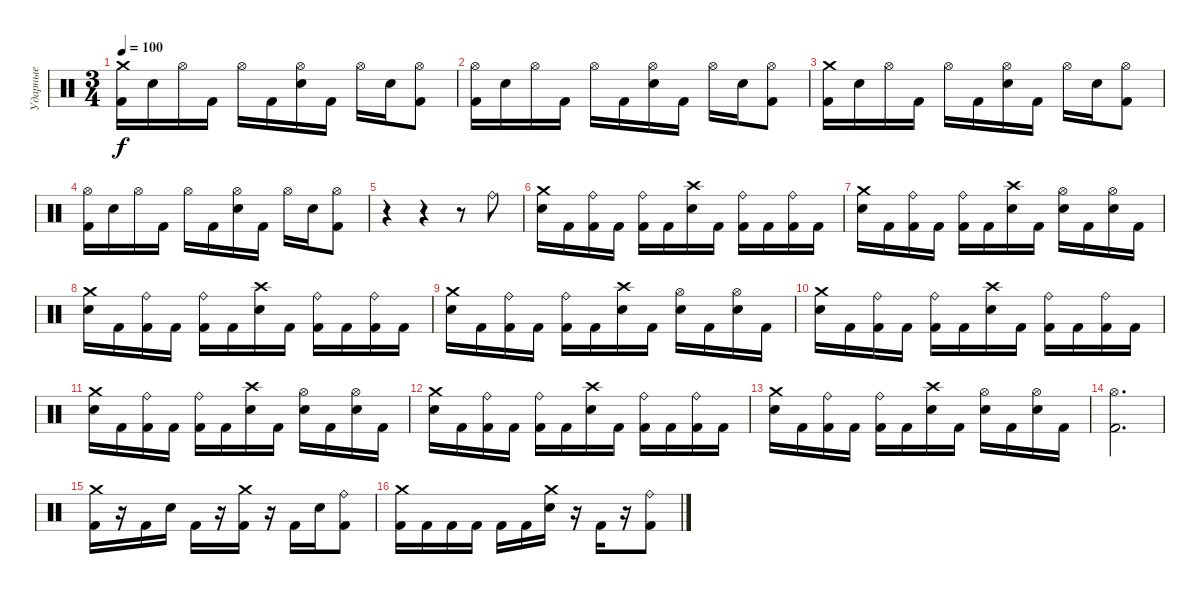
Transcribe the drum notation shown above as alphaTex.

\track ("Ударные" "Ударные") {instrument percussion}
\staff {score}
\articulation defaults
\ts (3 4)
\tempo 100
\clef neutral
\ks c
("Crash medium (hit)" "Kick (hit) 2").16{dy f} "Electric Snare (hit)".16 "Hi-Hat (open)".16 "Kick (hit) 2".16 "Hi-Hat (open)".16 "Kick (hit) 2".16 ("Hi-Hat (open)" "Electric Snare (hit)").16 "Kick (hit) 2".16 "Hi-Hat (open)".16 "Electric Snare (hit)".16 ("Hi-Hat (open)" "Kick (hit) 2").8 |
("Hi-Hat (open)" "Kick (hit) 2").16 "Electric Snare (hit)".16 "Hi-Hat (open)".16 "Kick (hit) 2".16 "Hi-Hat (open)".16 "Kick (hit) 2".16 ("Hi-Hat (open)" "Electric Snare (hit)").16 "Kick (hit) 2".16 "Hi-Hat (open)".16 "Electric Snare (hit)".16 ("Hi-Hat (open)" "Kick (hit) 2").8 |
("Crash medium (hit)" "Kick (hit) 2").16 "Electric Snare (hit)".16 "Hi-Hat (open)".16 "Kick (hit) 2".16 "Hi-Hat (open)".16 "Kick (hit) 2".16 ("Hi-Hat (open)" "Electric Snare (hit)").16 "Kick (hit) 2".16 "Hi-Hat (open)".16 "Electric Snare (hit)".16 ("Hi-Hat (open)" "Kick (hit) 2").8 |
("Hi-Hat (open)" "Kick (hit) 2").16 "Electric Snare (hit)".16 "Hi-Hat (open)".16 "Kick (hit) 2".16 "Hi-Hat (open)".16 "Kick (hit) 2".16 ("Hi-Hat (open)" "Electric Snare (hit)").16 "Kick (hit) 2".16 "Hi-Hat (open)".16 "Electric Snare (hit)".16 ("Hi-Hat (open)" "Kick (hit) 2").8 |
r.4 r.4 r.8 "Ride (bell)".8 |
("Crash medium (hit)" "Electric Snare (hit)").16 "Kick (hit) 2".16 ("Ride (bell)" "Kick (hit) 2").16 "Kick (hit) 2".16 ("Ride (bell)" "Kick (hit) 2").16 "Kick (hit) 2".16 ("Crash high (hit)" "Electric Snare (hit)").16 "Kick (hit) 2".16 ("Ride (bell)" "Kick (hit) 2").16 "Kick (hit) 2".16 ("Ride (bell)" "Kick (hit) 2").16 "Kick (hit) 2".16 |
("Crash medium (hit)" "Electric Snare (hit)").16 "Kick (hit) 2".16 ("Ride (bell)" "Kick (hit) 2").16 "Kick (hit) 2".16 ("Ride (bell)" "Kick (hit) 2").16 "Kick (hit) 2".16 ("Crash high (hit)" "Electric Snare (hit)").16 "Kick (hit) 2".16 ("Hi-Hat (open)" "Electric Snare (hit)").16 "Kick (hit) 2".16 ("Hi-Hat (open)" "Electric Snare (hit)").16 "Kick (hit) 2".16 |
("Crash medium (hit)" "Electric Snare (hit)").16 "Kick (hit) 2".16 ("Ride (bell)" "Kick (hit) 2").16 "Kick (hit) 2".16 ("Ride (bell)" "Kick (hit) 2").16 "Kick (hit) 2".16 ("Crash high (hit)" "Electric Snare (hit)").16 "Kick (hit) 2".16 ("Ride (bell)" "Kick (hit) 2").16 "Kick (hit) 2".16 ("Ride (bell)" "Kick (hit) 2").16 "Kick (hit) 2".16 |
("Crash medium (hit)" "Electric Snare (hit)").16 "Kick (hit) 2".16 ("Ride (bell)" "Kick (hit) 2").16 "Kick (hit) 2".16 ("Ride (bell)" "Kick (hit) 2").16 "Kick (hit) 2".16 ("Crash high (hit)" "Electric Snare (hit)").16 "Kick (hit) 2".16 ("Hi-Hat (open)" "Electric Snare (hit)").16 "Kick (hit) 2".16 ("Hi-Hat (open)" "Electric Snare (hit)").16 "Kick (hit) 2".16 |
("Crash medium (hit)" "Electric Snare (hit)").16 "Kick (hit) 2".16 ("Ride (bell)" "Kick (hit) 2").16 "Kick (hit) 2".16 ("Ride (bell)" "Kick (hit) 2").16 "Kick (hit) 2".16 ("Crash high (hit)" "Electric Snare (hit)").16 "Kick (hit) 2".16 ("Ride (bell)" "Kick (hit) 2").16 "Kick (hit) 2".16 ("Ride (bell)" "Kick (hit) 2").16 "Kick (hit) 2".16 |
("Crash medium (hit)" "Electric Snare (hit)").16 "Kick (hit) 2".16 ("Ride (bell)" "Kick (hit) 2").16 "Kick (hit) 2".16 ("Ride (bell)" "Kick (hit) 2").16 "Kick (hit) 2".16 ("Crash high (hit)" "Electric Snare (hit)").16 "Kick (hit) 2".16 ("Hi-Hat (open)" "Electric Snare (hit)").16 "Kick (hit) 2".16 ("Hi-Hat (open)" "Electric Snare (hit)").16 "Kick (hit) 2".16 |
("Crash medium (hit)" "Electric Snare (hit)").16 "Kick (hit) 2".16 ("Ride (bell)" "Kick (hit) 2").16 "Kick (hit) 2".16 ("Ride (bell)" "Kick (hit) 2").16 "Kick (hit) 2".16 ("Crash high (hit)" "Electric Snare (hit)").16 "Kick (hit) 2".16 ("Ride (bell)" "Kick (hit) 2").16 "Kick (hit) 2".16 ("Ride (bell)" "Kick (hit) 2").16 "Kick (hit) 2".16 |
("Crash medium (hit)" "Electric Snare (hit)").16 "Kick (hit) 2".16 ("Ride (bell)" "Kick (hit) 2").16 "Kick (hit) 2".16 ("Ride (bell)" "Kick (hit) 2").16 "Kick (hit) 2".16 ("Crash high (hit)" "Electric Snare (hit)").16 "Kick (hit) 2".16 ("Hi-Hat (open)" "Electric Snare (hit)").16 "Kick (hit) 2".16 ("Hi-Hat (open)" "Electric Snare (hit)").16 "Kick (hit) 2".16 |
("Hi-Hat (open)" "Kick (hit) 2").2{d} |
("Crash medium (hit)" "Kick (hit) 2").16 r.16 "Kick (hit) 2".16 "Electric Snare (hit)".16 "Kick (hit) 2".16 r.16 ("Crash medium (hit)" "Kick (hit) 2").16 r.16 "Kick (hit) 2".16 "Electric Snare (hit)".16 ("Ride (bell)" "Kick (hit) 2").8 |
("Crash medium (hit)" "Kick (hit) 2").16 "Kick (hit) 2".16 "Kick (hit) 2".16 "Kick (hit) 2".16 "Kick (hit) 2".16 "Kick (hit) 2".16 ("Crash medium (hit)" "Electric Snare (hit)").16 r.16 "Kick (hit) 2".16 r.16 ("Ride (bell)" "Kick (hit) 2").8
